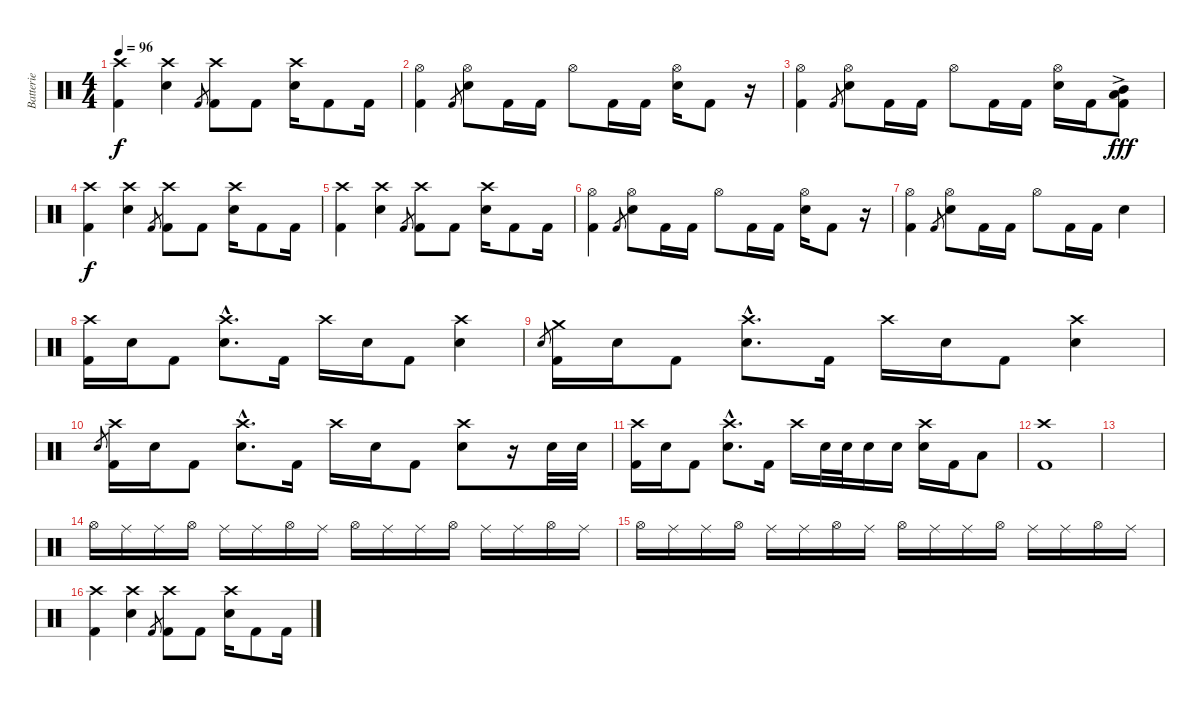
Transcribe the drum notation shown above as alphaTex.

\track ("Batterie" "Batterie") {instrument percussion}
\staff {score}
\articulation defaults
\ts (4 4)
\tempo 96
\clef neutral
\ks c
("Crash high (hit)" "Kick (hit) 2").4{dy f} ("Crash high (hit)" "Snare (hit) 2").4 "Kick (hit) 2".8{gr} ("Crash high (hit)" "Kick (hit) 2").8 "Kick (hit) 2".8 ("Crash high (hit)" "Snare (hit) 2").16 "Kick (hit) 2".8 "Kick (hit) 2".16 |
("Hi-Hat (open)" "Kick (hit) 2").4 "Kick (hit) 2".8{gr} ("Hi-Hat (open)" "Snare (hit) 2").8 "Kick (hit) 2".16 "Kick (hit) 2".16 "Hi-Hat (open)".8 "Kick (hit) 2".16 "Kick (hit) 2".16 ("Hi-Hat (open)" "Snare (hit) 2").16 "Kick (hit) 2".8 r.16 |
("Hi-Hat (open)" "Kick (hit) 2").4 "Kick (hit) 2".8{gr} ("Hi-Hat (open)" "Snare (hit) 2").8 "Kick (hit) 2".16 "Kick (hit) 2".16 "Hi-Hat (open)".8 "Kick (hit) 2".16 "Kick (hit) 2".16 ("Hi-Hat (open)" "Snare (hit) 2").16 "Kick (hit) 2".16 ("Mid Tom (hit)"{ac} "Low Tom (hit)"{ac} "Kick (hit) 2").8{dy fff} |
("Crash high (hit)" "Kick (hit) 2").4{dy f} ("Crash high (hit)" "Snare (hit) 2").4 "Kick (hit) 2".8{gr} ("Crash high (hit)" "Kick (hit) 2").8 "Kick (hit) 2".8 ("Crash high (hit)" "Snare (hit) 2").16 "Kick (hit) 2".8 "Kick (hit) 2".16 |
("Crash high (hit)" "Kick (hit) 2").4 ("Crash high (hit)" "Snare (hit) 2").4 "Kick (hit) 2".8{gr} ("Crash high (hit)" "Kick (hit) 2").8 "Kick (hit) 2".8 ("Crash high (hit)" "Snare (hit) 2").16 "Kick (hit) 2".8 "Kick (hit) 2".16 |
("Hi-Hat (open)" "Kick (hit) 2").4 "Kick (hit) 2".8{gr} ("Hi-Hat (open)" "Snare (hit) 2").8 "Kick (hit) 2".16 "Kick (hit) 2".16 "Hi-Hat (open)".8 "Kick (hit) 2".16 "Kick (hit) 2".16 ("Hi-Hat (open)" "Snare (hit) 2").16 "Kick (hit) 2".8 r.16 |
("Hi-Hat (open)" "Kick (hit) 2").4 "Kick (hit) 2".8{gr} ("Hi-Hat (open)" "Snare (hit) 2").8 "Kick (hit) 2".16 "Kick (hit) 2".16 "Hi-Hat (open)".8 "Kick (hit) 2".16 "Kick (hit) 2".16 "Snare (hit) 2"{tr (38 32)}.4 |
("Crash high (hit)" "Kick (hit) 2").16 "Snare (hit) 2".16 "Kick (hit) 2".8 ("Crash high (hit)"{hac} "Snare (hit) 2"{hac}).8{d} "Kick (hit) 2".16 "Crash high (hit)".16 "Snare (hit) 2".16 "Kick (hit) 2".8 ("Crash high (hit)" "Snare (hit) 2").4 |
"Snare (hit) 2".8{gr} ("Crash medium (hit)" "Kick (hit) 2").16 "Snare (hit) 2".16 "Kick (hit) 2".8 ("Crash high (hit)"{hac} "Snare (hit) 2"{hac}).8{d} "Kick (hit) 2".16 "Crash high (hit)".16 "Snare (hit) 2".16 "Kick (hit) 2".8 ("Crash high (hit)" "Snare (hit) 2").4 |
"Snare (hit) 2".8{gr} ("Crash high (hit)" "Kick (hit) 2").16 "Snare (hit) 2".16 "Kick (hit) 2".8 ("Crash high (hit)"{hac} "Snare (hit) 2"{hac}).8{d} "Kick (hit) 2".16 "Crash high (hit)".16 "Snare (hit) 2".16 "Kick (hit) 2".8 ("Crash high (hit)" "Snare (hit) 2").8 r.16 "Snare (hit) 2".32 "Snare (hit) 2".32 |
("Crash high (hit)" "Kick (hit) 2").16 "Snare (hit) 2".16 "Kick (hit) 2".8 ("Crash high (hit)"{hac} "Snare (hit) 2"{hac}).8{d} "Kick (hit) 2".16 "Crash high (hit)".16 "Snare (hit) 2".32 "Snare (hit) 2".32 "Snare (hit) 2".16 "Snare (hit) 2".16 ("Crash high (hit)" "Snare (hit) 2").16 "Kick (hit) 2".16 "Low Tom (hit)".8 |
("Crash high (hit)" "Kick (hit) 2").1 |
|
"Hi-Hat (open)".16 "Ride (middle)".16 "Ride (middle)".16 "Hi-Hat (open)".16 "Ride (middle)".16 "Ride (middle)".16 "Hi-Hat (open)".16 "Ride (middle)".16 "Hi-Hat (open)".16 "Ride (middle)".16 "Ride (middle)".16 "Hi-Hat (open)".16 "Ride (middle)".16 "Ride (middle)".16 "Hi-Hat (open)".16 "Ride (middle)".16 |
"Hi-Hat (open)".16 "Ride (middle)".16 "Ride (middle)".16 "Hi-Hat (open)".16 "Ride (middle)".16 "Ride (middle)".16 "Hi-Hat (open)".16 "Ride (middle)".16 "Hi-Hat (open)".16 "Ride (middle)".16 "Ride (middle)".16 "Hi-Hat (open)".16 "Ride (middle)".16 "Ride (middle)".16 "Hi-Hat (open)".16 "Ride (middle)".16 |
("Crash high (hit)" "Kick (hit) 2").4 ("Crash high (hit)" "Snare (hit) 2").4 "Kick (hit) 2".8{gr} ("Crash high (hit)" "Kick (hit) 2").8 "Kick (hit) 2".8 ("Crash high (hit)" "Snare (hit) 2").16 "Kick (hit) 2".8 "Kick (hit) 2".16
